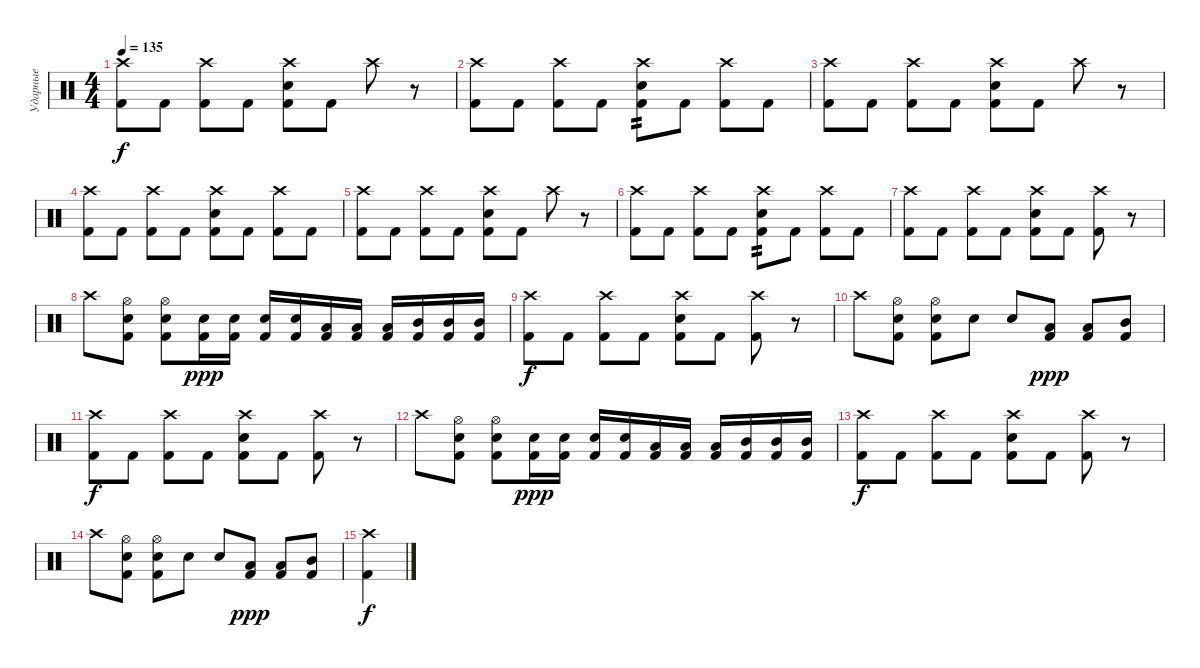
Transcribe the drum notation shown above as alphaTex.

\track ("Ударные" "Ударные") {instrument percussion}
\staff {score}
\articulation defaults
\ts (4 4)
\tempo 135
\clef neutral
\ks c
("Crash high (hit)" "Kick (hit) 2").8{dy f} "Kick (hit) 2".8 ("Crash high (hit)" "Kick (hit) 2").8 "Kick (hit) 2".8 ("Crash high (hit)" "Electric Snare (hit)" "Kick (hit) 2").8 "Kick (hit) 2".8 "Crash high (hit)".8 r.8 |
("Crash high (hit)" "Kick (hit) 2").8 "Kick (hit) 2".8 ("Crash high (hit)" "Kick (hit) 2").8 "Kick (hit) 2".8 ("Crash high (hit)" "Electric Snare (hit)" "Kick (hit) 2").8{tp 2} "Kick (hit) 2".8 ("Crash high (hit)" "Kick (hit) 2").8 "Kick (hit) 2".8 |
("Crash high (hit)" "Kick (hit) 2").8 "Kick (hit) 2".8 ("Crash high (hit)" "Kick (hit) 2").8 "Kick (hit) 2".8 ("Crash high (hit)" "Electric Snare (hit)" "Kick (hit) 2").8 "Kick (hit) 2".8 "Crash high (hit)".8 r.8 |
("Crash high (hit)" "Kick (hit) 2").8 "Kick (hit) 2".8 ("Crash high (hit)" "Kick (hit) 2").8 "Kick (hit) 2".8 ("Crash high (hit)" "Electric Snare (hit)" "Kick (hit) 2").8 "Kick (hit) 2".8 ("Crash high (hit)" "Kick (hit) 2").8 "Kick (hit) 2".8 |
("Crash high (hit)" "Kick (hit) 2").8 "Kick (hit) 2".8 ("Crash high (hit)" "Kick (hit) 2").8 "Kick (hit) 2".8 ("Crash high (hit)" "Electric Snare (hit)" "Kick (hit) 2").8 "Kick (hit) 2".8 "Crash high (hit)".8 r.8 |
("Crash high (hit)" "Kick (hit) 2").8 "Kick (hit) 2".8 ("Crash high (hit)" "Kick (hit) 2").8 "Kick (hit) 2".8 ("Crash high (hit)" "Electric Snare (hit)" "Kick (hit) 2").8{tp 2} "Kick (hit) 2".8 ("Crash high (hit)" "Kick (hit) 2").8 "Kick (hit) 2".8 |
("Crash high (hit)" "Kick (hit) 2").8 "Kick (hit) 2".8 ("Crash high (hit)" "Kick (hit) 2").8 "Kick (hit) 2".8 ("Crash high (hit)" "Electric Snare (hit)" "Kick (hit) 2").8 "Kick (hit) 2".8 ("Crash high (hit)" "Kick (hit) 2").8 r.8 |
"Crash high (hit)".8 ("Hi-Hat (open)" "Electric Snare (hit)" "Kick (hit) 2").8 ("Hi-Hat (open)" "Electric Snare (hit)" "Kick (hit) 2").8 ("Electric Snare (hit)" "Kick (hit) 2").16{dy ppp} ("Electric Snare (hit)" "Kick (hit) 2").16 ("Electric Snare (hit)" "Kick (hit) 2").16 ("Electric Snare (hit)" "Kick (hit) 2").16 ("Low Tom (hit)" "Kick (hit) 2").16 ("Low Tom (hit)" "Kick (hit) 2").16 ("Low Tom (hit)" "Kick (hit) 2").16 ("Mid Tom (hit)" "Kick (hit) 2").16 ("Mid Tom (hit)" "Kick (hit) 2").16 ("Mid Tom (hit)" "Kick (hit) 2").16 |
("Crash high (hit)" "Kick (hit) 2").8{dy f} "Kick (hit) 2".8 ("Crash high (hit)" "Kick (hit) 2").8 "Kick (hit) 2".8 ("Crash high (hit)" "Electric Snare (hit)" "Kick (hit) 2").8 "Kick (hit) 2".8 ("Crash high (hit)" "Kick (hit) 2").8 r.8 |
"Crash high (hit)".8 ("Hi-Hat (open)" "Electric Snare (hit)" "Kick (hit) 2").8 ("Hi-Hat (open)" "Electric Snare (hit)" "Kick (hit) 2").8 "Electric Snare (hit)".8 "Electric Snare (hit)".8 ("Low Tom (hit)" "Kick (hit) 2").8{dy ppp} ("Low Tom (hit)" "Kick (hit) 2").8 ("Mid Tom (hit)" "Kick (hit) 2").8 |
("Crash high (hit)" "Kick (hit) 2").8{dy f} "Kick (hit) 2".8 ("Crash high (hit)" "Kick (hit) 2").8 "Kick (hit) 2".8 ("Crash high (hit)" "Electric Snare (hit)" "Kick (hit) 2").8 "Kick (hit) 2".8 ("Crash high (hit)" "Kick (hit) 2").8 r.8 |
"Crash high (hit)".8 ("Hi-Hat (open)" "Electric Snare (hit)" "Kick (hit) 2").8 ("Hi-Hat (open)" "Electric Snare (hit)" "Kick (hit) 2").8 ("Electric Snare (hit)" "Kick (hit) 2").16{dy ppp} ("Electric Snare (hit)" "Kick (hit) 2").16 ("Electric Snare (hit)" "Kick (hit) 2").16 ("Electric Snare (hit)" "Kick (hit) 2").16 ("Low Tom (hit)" "Kick (hit) 2").16 ("Low Tom (hit)" "Kick (hit) 2").16 ("Low Tom (hit)" "Kick (hit) 2").16 ("Mid Tom (hit)" "Kick (hit) 2").16 ("Mid Tom (hit)" "Kick (hit) 2").16 ("Mid Tom (hit)" "Kick (hit) 2").16 |
("Crash high (hit)" "Kick (hit) 2").8{dy f} "Kick (hit) 2".8 ("Crash high (hit)" "Kick (hit) 2").8 "Kick (hit) 2".8 ("Crash high (hit)" "Electric Snare (hit)" "Kick (hit) 2").8 "Kick (hit) 2".8 ("Crash high (hit)" "Kick (hit) 2").8 r.8 |
"Crash high (hit)".8 ("Hi-Hat (open)" "Electric Snare (hit)" "Kick (hit) 2").8 ("Hi-Hat (open)" "Electric Snare (hit)" "Kick (hit) 2").8 "Electric Snare (hit)".8 "Electric Snare (hit)".8 ("Low Tom (hit)" "Kick (hit) 2").8{dy ppp} ("Low Tom (hit)" "Kick (hit) 2").8 ("Mid Tom (hit)" "Kick (hit) 2").8 |
("Crash high (hit)" "Kick (hit) 2").4{dy f}
